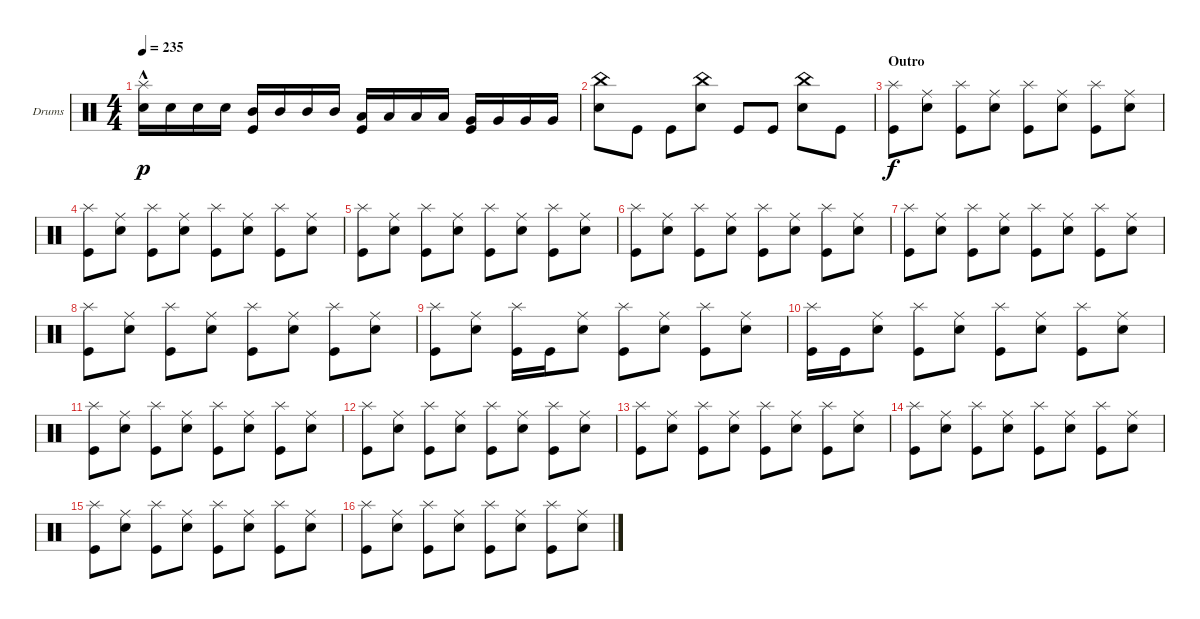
\defaultSystemsLayout 4
\bracketExtendMode groupsimilarinstruments
\firstSystemTrackNameOrientation horizontal
\otherSystemsTrackNameOrientation horizontal
\track ("Drumkit" "Drums") {instrument percussion}
\staff {score}
\articulation defaults
\ts (4 4)
\tempo 235
\clef neutral
\ks c
("Splash (hit)" "Snare (hit) 2"{hac}).16{dy p} "Snare (hit) 2".16 "Snare (hit) 2".16 "Snare (hit) 2".16 ("Kick (hit)" "Mid Tom (hit)").16 "Mid Tom (hit)".16 "Mid Tom (hit)".16 "Mid Tom (hit)".16 ("Kick (hit)" "Low Tom (hit)").16 "Low Tom (hit)".16 "Low Tom (hit)".16 "Low Tom (hit)".16 ("Kick (hit)" "Very Low Tom (hit)").16 "Very Low Tom (hit)".16 "Very Low Tom (hit)".16 "Very Low Tom (hit)".16 |
("Snare (hit) 2" "China (hit)").8 "Kick (hit)".8 "Kick (hit)".8 ("Snare (hit) 2" "China (hit)").8 "Kick (hit)".8 "Kick (hit)".8 ("Snare (hit) 2" "China (hit)").8 "Kick (hit)".8 |
\section ("" "Outro")
("Kick (hit)" "Splash (hit)").8{dy f} ("Snare (hit) 2" "Ride (middle)").8 ("Kick (hit)" "Splash (hit)").8 ("Snare (hit) 2" "Ride (middle)").8 ("Kick (hit)" "Splash (hit)").8 ("Snare (hit) 2" "Ride (middle)").8 ("Kick (hit)" "Splash (hit)").8 ("Snare (hit) 2" "Ride (middle)").8 |
("Kick (hit)" "Splash (hit)").8 ("Snare (hit) 2" "Ride (middle)").8 ("Kick (hit)" "Splash (hit)").8 ("Snare (hit) 2" "Ride (middle)").8 ("Kick (hit)" "Splash (hit)").8 ("Snare (hit) 2" "Ride (middle)").8 ("Kick (hit)" "Splash (hit)").8 ("Snare (hit) 2" "Ride (middle)").8 |
("Kick (hit)" "Splash (hit)").8 ("Snare (hit) 2" "Ride (middle)").8 ("Kick (hit)" "Splash (hit)").8 ("Snare (hit) 2" "Ride (middle)").8 ("Kick (hit)" "Splash (hit)").8 ("Snare (hit) 2" "Ride (middle)").8 ("Kick (hit)" "Splash (hit)").8 ("Snare (hit) 2" "Ride (middle)").8 |
("Kick (hit)" "Splash (hit)").8 ("Snare (hit) 2" "Ride (middle)").8 ("Kick (hit)" "Splash (hit)").8 ("Snare (hit) 2" "Ride (middle)").8 ("Kick (hit)" "Splash (hit)").8 ("Snare (hit) 2" "Ride (middle)").8 ("Kick (hit)" "Splash (hit)").8 ("Snare (hit) 2" "Ride (middle)").8 |
("Kick (hit)" "Splash (hit)").8 ("Snare (hit) 2" "Ride (middle)").8 ("Kick (hit)" "Splash (hit)").8 ("Snare (hit) 2" "Ride (middle)").8 ("Kick (hit)" "Splash (hit)").8 ("Snare (hit) 2" "Ride (middle)").8 ("Kick (hit)" "Splash (hit)").8 ("Snare (hit) 2" "Ride (middle)").8 |
("Kick (hit)" "Splash (hit)").8 ("Snare (hit) 2" "Ride (middle)").8 ("Kick (hit)" "Splash (hit)").8 ("Snare (hit) 2" "Ride (middle)").8 ("Kick (hit)" "Splash (hit)").8 ("Snare (hit) 2" "Ride (middle)").8 ("Kick (hit)" "Splash (hit)").8 ("Snare (hit) 2" "Ride (middle)").8 |
("Kick (hit)" "Splash (hit)").8 ("Snare (hit) 2" "Ride (middle)").8 ("Kick (hit)" "Splash (hit)").16 "Kick (hit)".16 ("Snare (hit) 2" "Ride (middle)").8 ("Kick (hit)" "Splash (hit)").8 ("Snare (hit) 2" "Ride (middle)").8 ("Kick (hit)" "Splash (hit)").8 ("Snare (hit) 2" "Ride (middle)").8 |
("Kick (hit)" "Splash (hit)").16 "Kick (hit)".16 ("Snare (hit) 2" "Ride (middle)").8 ("Kick (hit)" "Splash (hit)").8 ("Snare (hit) 2" "Ride (middle)").8 ("Kick (hit)" "Splash (hit)").8 ("Snare (hit) 2" "Ride (middle)").8 ("Kick (hit)" "Splash (hit)").8 ("Snare (hit) 2" "Ride (middle)").8 |
("Kick (hit)" "Splash (hit)").8 ("Snare (hit) 2" "Ride (middle)").8 ("Kick (hit)" "Splash (hit)").8 ("Snare (hit) 2" "Ride (middle)").8 ("Kick (hit)" "Splash (hit)").8 ("Snare (hit) 2" "Ride (middle)").8 ("Kick (hit)" "Splash (hit)").8 ("Snare (hit) 2" "Ride (middle)").8 |
("Kick (hit)" "Splash (hit)").8 ("Snare (hit) 2" "Ride (middle)").8 ("Kick (hit)" "Splash (hit)").8 ("Snare (hit) 2" "Ride (middle)").8 ("Kick (hit)" "Splash (hit)").8 ("Snare (hit) 2" "Ride (middle)").8 ("Kick (hit)" "Splash (hit)").8 ("Snare (hit) 2" "Ride (middle)").8 |
("Kick (hit)" "Splash (hit)").8 ("Snare (hit) 2" "Ride (middle)").8 ("Kick (hit)" "Splash (hit)").8 ("Snare (hit) 2" "Ride (middle)").8 ("Kick (hit)" "Splash (hit)").8 ("Snare (hit) 2" "Ride (middle)").8 ("Kick (hit)" "Splash (hit)").8 ("Snare (hit) 2" "Ride (middle)").8 |
("Kick (hit)" "Splash (hit)").8 ("Snare (hit) 2" "Ride (middle)").8 ("Kick (hit)" "Splash (hit)").8 ("Snare (hit) 2" "Ride (middle)").8 ("Kick (hit)" "Splash (hit)").8 ("Snare (hit) 2" "Ride (middle)").8 ("Kick (hit)" "Splash (hit)").8 ("Snare (hit) 2" "Ride (middle)").8 |
("Kick (hit)" "Splash (hit)").8 ("Snare (hit) 2" "Ride (middle)").8 ("Kick (hit)" "Splash (hit)").8 ("Snare (hit) 2" "Ride (middle)").8 ("Kick (hit)" "Splash (hit)").8 ("Snare (hit) 2" "Ride (middle)").8 ("Kick (hit)" "Splash (hit)").8 ("Snare (hit) 2" "Ride (middle)").8 |
("Kick (hit)" "Splash (hit)").8 ("Snare (hit) 2" "Ride (middle)").8 ("Kick (hit)" "Splash (hit)").8 ("Snare (hit) 2" "Ride (middle)").8 ("Kick (hit)" "Splash (hit)").8 ("Snare (hit) 2" "Ride (middle)").8 ("Kick (hit)" "Splash (hit)").8 ("Snare (hit) 2" "Ride (middle)").8
